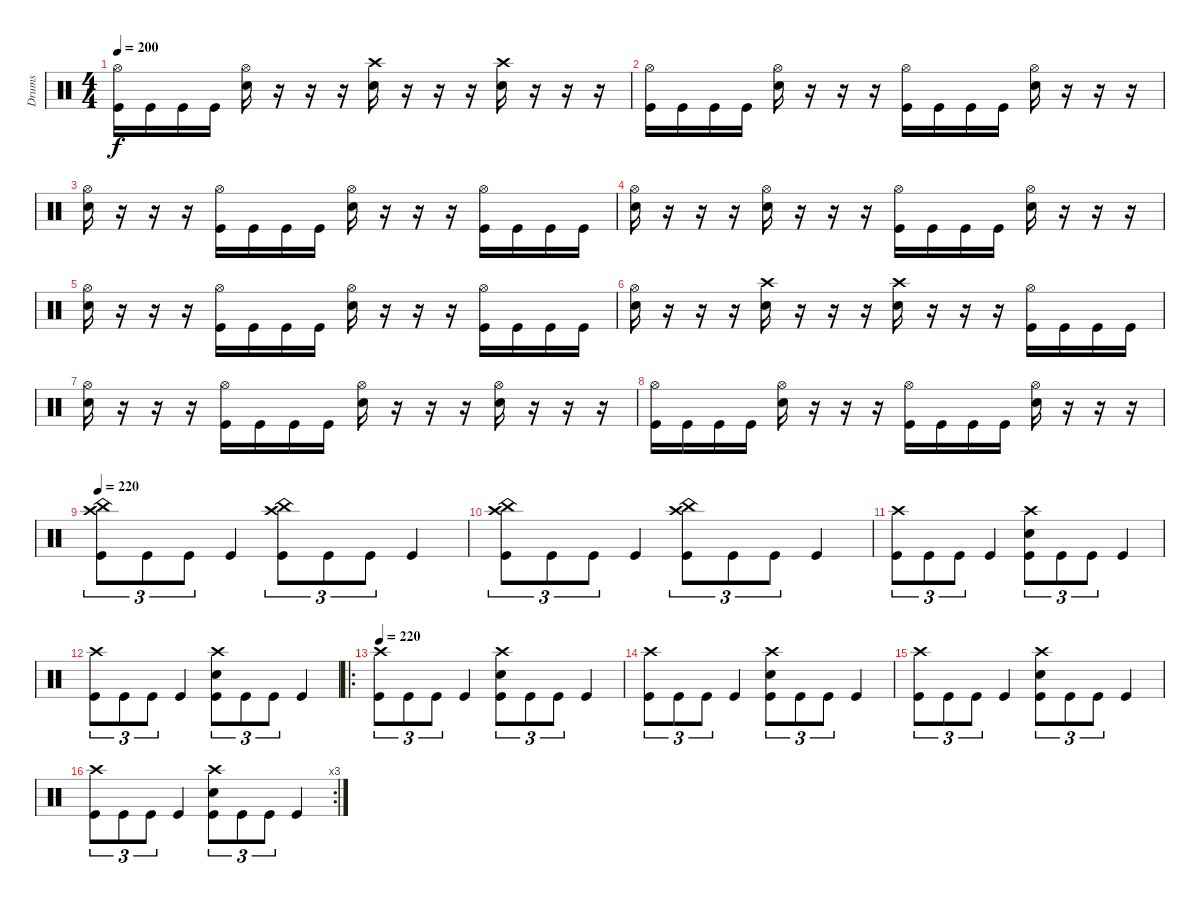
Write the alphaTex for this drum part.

\track ("Drums" "Drums") {instrument percussion}
\staff {score}
\articulation defaults
\ts (4 4)
\tempo 200
\clef neutral
\ks c
("Hi-Hat (open)" "Kick (hit)").16{dy f} "Kick (hit)".16 "Kick (hit)".16 "Kick (hit)".16 ("Hi-Hat (open)" "Snare (hit) 2").16 r.16 r.16 r.16 ("Crash high (hit)" "Snare (hit) 2").16 r.16 r.16 r.16 ("Crash high (hit)" "Snare (hit) 2").16 r.16 r.16 r.16 |
("Hi-Hat (open)" "Kick (hit)").16 "Kick (hit)".16 "Kick (hit)".16 "Kick (hit)".16 ("Hi-Hat (open)" "Snare (hit) 2").16 r.16 r.16 r.16 ("Hi-Hat (open)" "Kick (hit)").16 "Kick (hit)".16 "Kick (hit)".16 "Kick (hit)".16 ("Hi-Hat (open)" "Snare (hit) 2").16 r.16 r.16 r.16 |
("Hi-Hat (open)" "Snare (hit) 2").16 r.16 r.16 r.16 ("Hi-Hat (open)" "Kick (hit)").16 "Kick (hit)".16 "Kick (hit)".16 "Kick (hit)".16 ("Hi-Hat (open)" "Snare (hit) 2").16 r.16 r.16 r.16 ("Hi-Hat (open)" "Kick (hit)").16 "Kick (hit)".16 "Kick (hit)".16 "Kick (hit)".16 |
("Hi-Hat (open)" "Snare (hit) 2").16 r.16 r.16 r.16 ("Hi-Hat (open)" "Snare (hit) 2").16 r.16 r.16 r.16 ("Hi-Hat (open)" "Kick (hit)").16 "Kick (hit)".16 "Kick (hit)".16 "Kick (hit)".16 ("Hi-Hat (open)" "Snare (hit) 2").16 r.16 r.16 r.16 |
("Hi-Hat (open)" "Snare (hit) 2").16 r.16 r.16 r.16 ("Hi-Hat (open)" "Kick (hit)").16 "Kick (hit)".16 "Kick (hit)".16 "Kick (hit)".16 ("Hi-Hat (open)" "Snare (hit) 2").16 r.16 r.16 r.16 ("Hi-Hat (open)" "Kick (hit)").16 "Kick (hit)".16 "Kick (hit)".16 "Kick (hit)".16 |
("Hi-Hat (open)" "Snare (hit) 2").16 r.16 r.16 r.16 ("Crash high (hit)" "Snare (hit) 2").16 r.16 r.16 r.16 ("Crash high (hit)" "Snare (hit) 2").16 r.16 r.16 r.16 ("Hi-Hat (open)" "Kick (hit)").16 "Kick (hit)".16 "Kick (hit)".16 "Kick (hit)".16 |
("Hi-Hat (open)" "Snare (hit) 2").16 r.16 r.16 r.16 ("Hi-Hat (open)" "Kick (hit)").16 "Kick (hit)".16 "Kick (hit)".16 "Kick (hit)".16 ("Hi-Hat (open)" "Snare (hit) 2").16 r.16 r.16 r.16 ("Hi-Hat (open)" "Snare (hit) 2").16 r.16 r.16 r.16 |
("Hi-Hat (open)" "Kick (hit)").16 "Kick (hit)".16 "Kick (hit)".16 "Kick (hit)".16 ("Hi-Hat (open)" "Snare (hit) 2").16 r.16 r.16 r.16 ("Hi-Hat (open)" "Kick (hit)").16 "Kick (hit)".16 "Kick (hit)".16 "Kick (hit)".16 ("Hi-Hat (open)" "Snare (hit) 2").16 r.16 r.16 r.16 |
\tempo 220
("Crash high (hit)" "China (hit)" "Kick (hit)").8{tu (3 2)} "Kick (hit)".8{tu (3 2)} "Kick (hit)".8{tu (3 2)} "Kick (hit)".4 ("Crash high (hit)" "China (hit)" "Kick (hit)").8{tu (3 2)} "Kick (hit)".8{tu (3 2)} "Kick (hit)".8{tu (3 2)} "Kick (hit)".4 |
("Crash high (hit)" "China (hit)" "Kick (hit)").8{tu (3 2)} "Kick (hit)".8{tu (3 2)} "Kick (hit)".8{tu (3 2)} "Kick (hit)".4 ("Crash high (hit)" "China (hit)" "Kick (hit)").8{tu (3 2)} "Kick (hit)".8{tu (3 2)} "Kick (hit)".8{tu (3 2)} "Kick (hit)".4 |
("Crash high (hit)" "Kick (hit)").8{tu (3 2)} "Kick (hit)".8{tu (3 2)} "Kick (hit)".8{tu (3 2)} "Kick (hit)".4 ("Crash high (hit)" "Snare (hit) 2" "Kick (hit)").8{tu (3 2)} "Kick (hit)".8{tu (3 2)} "Kick (hit)".8{tu (3 2)} "Kick (hit)".4 |
("Crash high (hit)" "Kick (hit)").8{tu (3 2)} "Kick (hit)".8{tu (3 2)} "Kick (hit)".8{tu (3 2)} "Kick (hit)".4 ("Crash high (hit)" "Snare (hit) 2" "Kick (hit)").8{tu (3 2)} "Kick (hit)".8{tu (3 2)} "Kick (hit)".8{tu (3 2)} "Kick (hit)".4 |
\ro
\tempo 220
("Crash high (hit)" "Kick (hit)").8{tu (3 2)} "Kick (hit)".8{tu (3 2)} "Kick (hit)".8{tu (3 2)} "Kick (hit)".4 ("Crash high (hit)" "Snare (hit) 2" "Kick (hit)").8{tu (3 2)} "Kick (hit)".8{tu (3 2)} "Kick (hit)".8{tu (3 2)} "Kick (hit)".4 |
("Crash high (hit)" "Kick (hit)").8{tu (3 2)} "Kick (hit)".8{tu (3 2)} "Kick (hit)".8{tu (3 2)} "Kick (hit)".4 ("Crash high (hit)" "Snare (hit) 2" "Kick (hit)").8{tu (3 2)} "Kick (hit)".8{tu (3 2)} "Kick (hit)".8{tu (3 2)} "Kick (hit)".4 |
("Crash high (hit)" "Kick (hit)").8{tu (3 2)} "Kick (hit)".8{tu (3 2)} "Kick (hit)".8{tu (3 2)} "Kick (hit)".4 ("Crash high (hit)" "Snare (hit) 2" "Kick (hit)").8{tu (3 2)} "Kick (hit)".8{tu (3 2)} "Kick (hit)".8{tu (3 2)} "Kick (hit)".4 |
\rc 3
("Crash high (hit)" "Kick (hit)").8{tu (3 2)} "Kick (hit)".8{tu (3 2)} "Kick (hit)".8{tu (3 2)} "Kick (hit)".4 ("Crash high (hit)" "Snare (hit) 2" "Kick (hit)").8{tu (3 2)} "Kick (hit)".8{tu (3 2)} "Kick (hit)".8{tu (3 2)} "Kick (hit)".4
